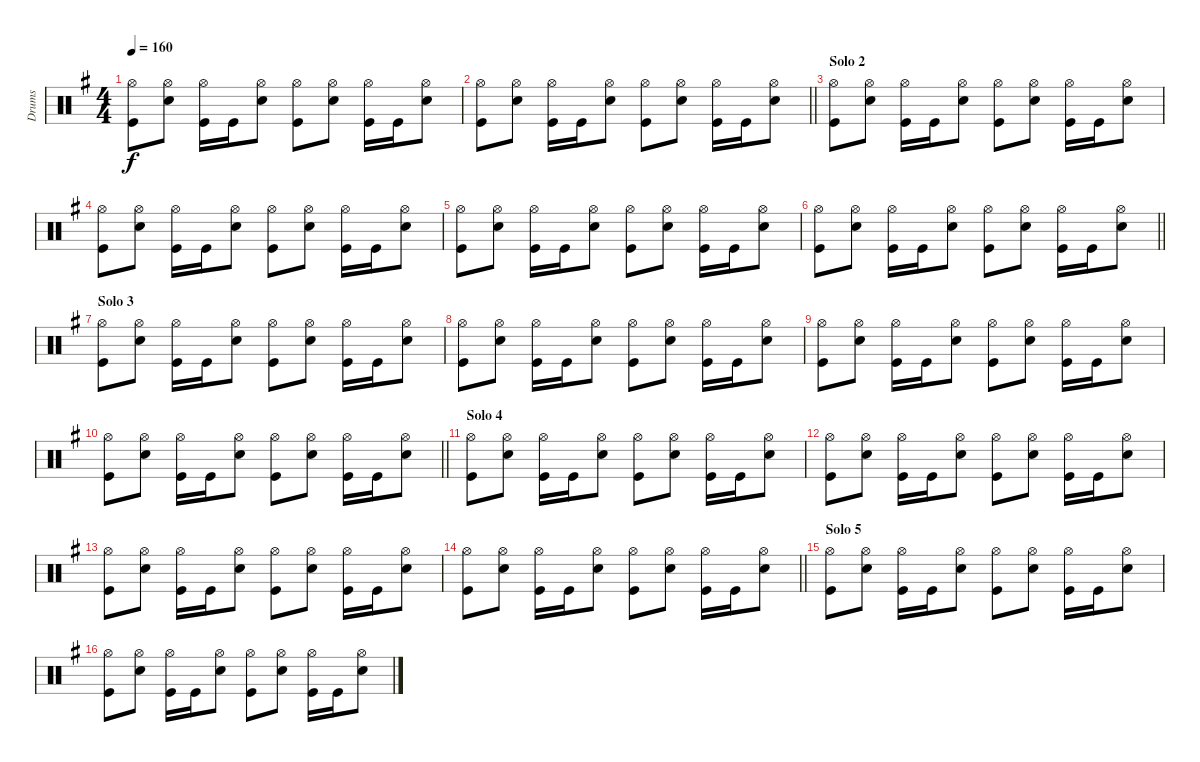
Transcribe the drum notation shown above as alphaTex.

\track ("Drums" "Drums") {instrument percussion}
\staff {score}
\articulation defaults
\ts (4 4)
\tempo 160
\clef neutral
\ks eminor
("Hi-Hat (open)" "Kick (hit)").8{dy f} ("Hi-Hat (open)" "Snare (hit) 2").8 ("Hi-Hat (open)" "Kick (hit)").16 "Kick (hit)".16 ("Hi-Hat (open)" "Snare (hit) 2").8 ("Hi-Hat (open)" "Kick (hit)").8 ("Hi-Hat (open)" "Snare (hit) 2").8 ("Hi-Hat (open)" "Kick (hit)").16 "Kick (hit)".16 ("Hi-Hat (open)" "Snare (hit) 2").8 |
\barLineRight lightlight
("Hi-Hat (open)" "Kick (hit)").8 ("Hi-Hat (open)" "Snare (hit) 2").8 ("Hi-Hat (open)" "Kick (hit)").16 "Kick (hit)".16 ("Hi-Hat (open)" "Snare (hit) 2").8 ("Hi-Hat (open)" "Kick (hit)").8 ("Hi-Hat (open)" "Snare (hit) 2").8 ("Hi-Hat (open)" "Kick (hit)").16 "Kick (hit)".16 ("Hi-Hat (open)" "Snare (hit) 2").8 |
\section ("" "Solo 2")
("Hi-Hat (open)" "Kick (hit)").8 ("Hi-Hat (open)" "Snare (hit) 2").8 ("Hi-Hat (open)" "Kick (hit)").16 "Kick (hit)".16 ("Hi-Hat (open)" "Snare (hit) 2").8 ("Hi-Hat (open)" "Kick (hit)").8 ("Hi-Hat (open)" "Snare (hit) 2").8 ("Hi-Hat (open)" "Kick (hit)").16 "Kick (hit)".16 ("Hi-Hat (open)" "Snare (hit) 2").8 |
("Hi-Hat (open)" "Kick (hit)").8 ("Hi-Hat (open)" "Snare (hit) 2").8 ("Hi-Hat (open)" "Kick (hit)").16 "Kick (hit)".16 ("Hi-Hat (open)" "Snare (hit) 2").8 ("Hi-Hat (open)" "Kick (hit)").8 ("Hi-Hat (open)" "Snare (hit) 2").8 ("Hi-Hat (open)" "Kick (hit)").16 "Kick (hit)".16 ("Hi-Hat (open)" "Snare (hit) 2").8 |
("Hi-Hat (open)" "Kick (hit)").8 ("Hi-Hat (open)" "Snare (hit) 2").8 ("Hi-Hat (open)" "Kick (hit)").16 "Kick (hit)".16 ("Hi-Hat (open)" "Snare (hit) 2").8 ("Hi-Hat (open)" "Kick (hit)").8 ("Hi-Hat (open)" "Snare (hit) 2").8 ("Hi-Hat (open)" "Kick (hit)").16 "Kick (hit)".16 ("Hi-Hat (open)" "Snare (hit) 2").8 |
\barLineRight lightlight
("Hi-Hat (open)" "Kick (hit)").8 ("Hi-Hat (open)" "Snare (hit) 2").8 ("Hi-Hat (open)" "Kick (hit)").16 "Kick (hit)".16 ("Hi-Hat (open)" "Snare (hit) 2").8 ("Hi-Hat (open)" "Kick (hit)").8 ("Hi-Hat (open)" "Snare (hit) 2").8 ("Hi-Hat (open)" "Kick (hit)").16 "Kick (hit)".16 ("Hi-Hat (open)" "Snare (hit) 2").8 |
\section ("" "Solo 3")
("Hi-Hat (open)" "Kick (hit)").8 ("Hi-Hat (open)" "Snare (hit) 2").8 ("Hi-Hat (open)" "Kick (hit)").16 "Kick (hit)".16 ("Hi-Hat (open)" "Snare (hit) 2").8 ("Hi-Hat (open)" "Kick (hit)").8 ("Hi-Hat (open)" "Snare (hit) 2").8 ("Hi-Hat (open)" "Kick (hit)").16 "Kick (hit)".16 ("Hi-Hat (open)" "Snare (hit) 2").8 |
("Hi-Hat (open)" "Kick (hit)").8 ("Hi-Hat (open)" "Snare (hit) 2").8 ("Hi-Hat (open)" "Kick (hit)").16 "Kick (hit)".16 ("Hi-Hat (open)" "Snare (hit) 2").8 ("Hi-Hat (open)" "Kick (hit)").8 ("Hi-Hat (open)" "Snare (hit) 2").8 ("Hi-Hat (open)" "Kick (hit)").16 "Kick (hit)".16 ("Hi-Hat (open)" "Snare (hit) 2").8 |
("Hi-Hat (open)" "Kick (hit)").8 ("Hi-Hat (open)" "Snare (hit) 2").8 ("Hi-Hat (open)" "Kick (hit)").16 "Kick (hit)".16 ("Hi-Hat (open)" "Snare (hit) 2").8 ("Hi-Hat (open)" "Kick (hit)").8 ("Hi-Hat (open)" "Snare (hit) 2").8 ("Hi-Hat (open)" "Kick (hit)").16 "Kick (hit)".16 ("Hi-Hat (open)" "Snare (hit) 2").8 |
\barLineRight lightlight
("Hi-Hat (open)" "Kick (hit)").8 ("Hi-Hat (open)" "Snare (hit) 2").8 ("Hi-Hat (open)" "Kick (hit)").16 "Kick (hit)".16 ("Hi-Hat (open)" "Snare (hit) 2").8 ("Hi-Hat (open)" "Kick (hit)").8 ("Hi-Hat (open)" "Snare (hit) 2").8 ("Hi-Hat (open)" "Kick (hit)").16 "Kick (hit)".16 ("Hi-Hat (open)" "Snare (hit) 2").8 |
\section ("" "Solo 4")
("Hi-Hat (open)" "Kick (hit)").8 ("Hi-Hat (open)" "Snare (hit) 2").8 ("Hi-Hat (open)" "Kick (hit)").16 "Kick (hit)".16 ("Hi-Hat (open)" "Snare (hit) 2").8 ("Hi-Hat (open)" "Kick (hit)").8 ("Hi-Hat (open)" "Snare (hit) 2").8 ("Hi-Hat (open)" "Kick (hit)").16 "Kick (hit)".16 ("Hi-Hat (open)" "Snare (hit) 2").8 |
("Hi-Hat (open)" "Kick (hit)").8 ("Hi-Hat (open)" "Snare (hit) 2").8 ("Hi-Hat (open)" "Kick (hit)").16 "Kick (hit)".16 ("Hi-Hat (open)" "Snare (hit) 2").8 ("Hi-Hat (open)" "Kick (hit)").8 ("Hi-Hat (open)" "Snare (hit) 2").8 ("Hi-Hat (open)" "Kick (hit)").16 "Kick (hit)".16 ("Hi-Hat (open)" "Snare (hit) 2").8 |
("Hi-Hat (open)" "Kick (hit)").8 ("Hi-Hat (open)" "Snare (hit) 2").8 ("Hi-Hat (open)" "Kick (hit)").16 "Kick (hit)".16 ("Hi-Hat (open)" "Snare (hit) 2").8 ("Hi-Hat (open)" "Kick (hit)").8 ("Hi-Hat (open)" "Snare (hit) 2").8 ("Hi-Hat (open)" "Kick (hit)").16 "Kick (hit)".16 ("Hi-Hat (open)" "Snare (hit) 2").8 |
\barLineRight lightlight
("Hi-Hat (open)" "Kick (hit)").8 ("Hi-Hat (open)" "Snare (hit) 2").8 ("Hi-Hat (open)" "Kick (hit)").16 "Kick (hit)".16 ("Hi-Hat (open)" "Snare (hit) 2").8 ("Hi-Hat (open)" "Kick (hit)").8 ("Hi-Hat (open)" "Snare (hit) 2").8 ("Hi-Hat (open)" "Kick (hit)").16 "Kick (hit)".16 ("Hi-Hat (open)" "Snare (hit) 2").8 |
\section ("" "Solo 5")
("Hi-Hat (open)" "Kick (hit)").8 ("Hi-Hat (open)" "Snare (hit) 2").8 ("Hi-Hat (open)" "Kick (hit)").16 "Kick (hit)".16 ("Hi-Hat (open)" "Snare (hit) 2").8 ("Hi-Hat (open)" "Kick (hit)").8 ("Hi-Hat (open)" "Snare (hit) 2").8 ("Hi-Hat (open)" "Kick (hit)").16 "Kick (hit)".16 ("Hi-Hat (open)" "Snare (hit) 2").8 |
("Hi-Hat (open)" "Kick (hit)").8 ("Hi-Hat (open)" "Snare (hit) 2").8 ("Hi-Hat (open)" "Kick (hit)").16 "Kick (hit)".16 ("Hi-Hat (open)" "Snare (hit) 2").8 ("Hi-Hat (open)" "Kick (hit)").8 ("Hi-Hat (open)" "Snare (hit) 2").8 ("Hi-Hat (open)" "Kick (hit)").16 "Kick (hit)".16 ("Hi-Hat (open)" "Snare (hit) 2").8
